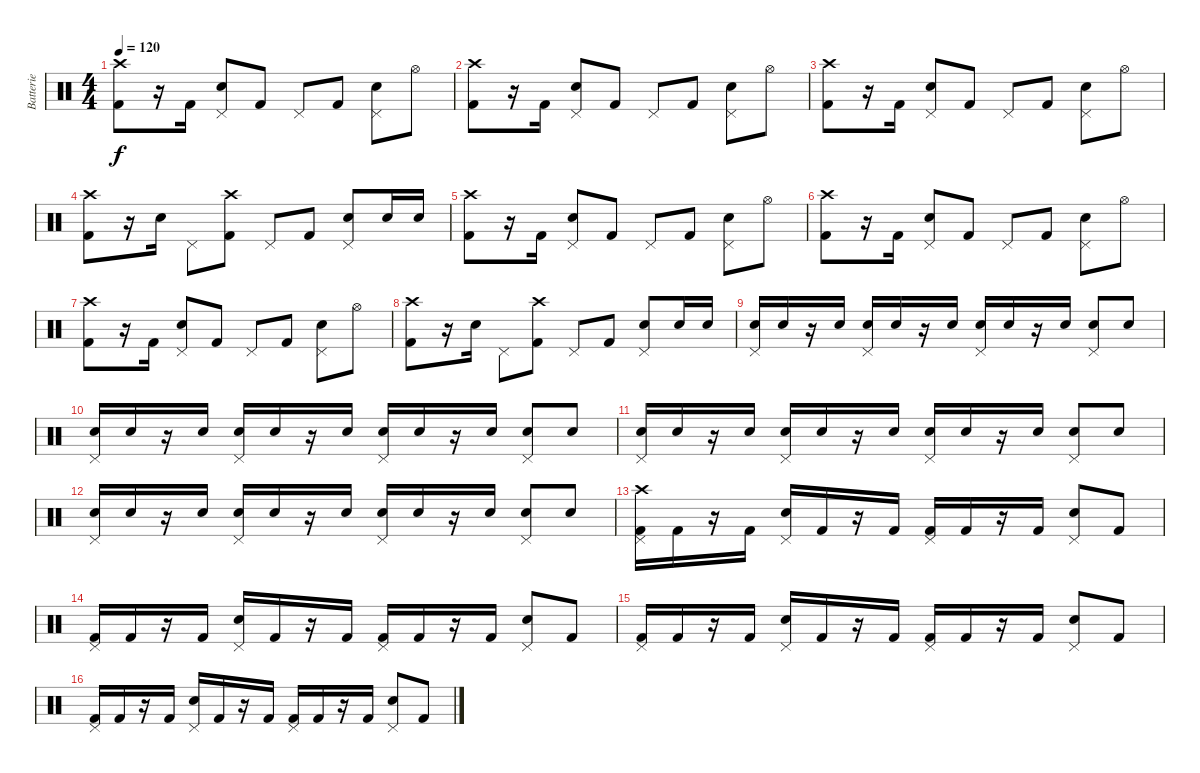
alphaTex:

\track ("Batterie" "Batterie") {instrument percussion}
\staff {score}
\articulation defaults
\ts (4 4)
\tempo 120
\clef neutral
\ks c
("Crash high (hit)" "Kick (hit) 2").8{dy f} r.16 "Kick (hit) 2".16 ("Snare (hit) 2" "Pedal Hi-Hat (hit)").8 "Kick (hit) 2".8 "Pedal Hi-Hat (hit)".8 "Kick (hit) 2".8 ("Snare (hit) 2" "Pedal Hi-Hat (hit)").8 "Hi-Hat (open)".8 |
("Crash high (hit)" "Kick (hit) 2").8 r.16 "Kick (hit) 2".16 ("Snare (hit) 2" "Pedal Hi-Hat (hit)").8 "Kick (hit) 2".8 "Pedal Hi-Hat (hit)".8 "Kick (hit) 2".8 ("Snare (hit) 2" "Pedal Hi-Hat (hit)").8 "Hi-Hat (open)".8 |
("Crash high (hit)" "Kick (hit) 2").8 r.16 "Kick (hit) 2".16 ("Snare (hit) 2" "Pedal Hi-Hat (hit)").8 "Kick (hit) 2".8 "Pedal Hi-Hat (hit)".8 "Kick (hit) 2".8 ("Snare (hit) 2" "Pedal Hi-Hat (hit)").8 "Hi-Hat (open)".8 |
("Crash high (hit)" "Kick (hit) 2").8 r.16 "Snare (hit) 2".16 "Pedal Hi-Hat (hit)".8 ("Crash high (hit)" "Kick (hit) 2").8 "Pedal Hi-Hat (hit)".8 "Kick (hit) 2".8 ("Snare (hit) 2" "Pedal Hi-Hat (hit)").8 "Snare (hit) 2".16 "Snare (hit) 2".16 |
("Crash high (hit)" "Kick (hit) 2").8 r.16 "Kick (hit) 2".16 ("Snare (hit) 2" "Pedal Hi-Hat (hit)").8 "Kick (hit) 2".8 "Pedal Hi-Hat (hit)".8 "Kick (hit) 2".8 ("Snare (hit) 2" "Pedal Hi-Hat (hit)").8 "Hi-Hat (open)".8 |
("Crash high (hit)" "Kick (hit) 2").8 r.16 "Kick (hit) 2".16 ("Snare (hit) 2" "Pedal Hi-Hat (hit)").8 "Kick (hit) 2".8 "Pedal Hi-Hat (hit)".8 "Kick (hit) 2".8 ("Snare (hit) 2" "Pedal Hi-Hat (hit)").8 "Hi-Hat (open)".8 |
("Crash high (hit)" "Kick (hit) 2").8 r.16 "Kick (hit) 2".16 ("Snare (hit) 2" "Pedal Hi-Hat (hit)").8 "Kick (hit) 2".8 "Pedal Hi-Hat (hit)".8 "Kick (hit) 2".8 ("Snare (hit) 2" "Pedal Hi-Hat (hit)").8 "Hi-Hat (open)".8 |
("Crash high (hit)" "Kick (hit) 2").8 r.16 "Snare (hit) 2".16 "Pedal Hi-Hat (hit)".8 ("Crash high (hit)" "Kick (hit) 2").8 "Pedal Hi-Hat (hit)".8 "Kick (hit) 2".8 ("Snare (hit) 2" "Pedal Hi-Hat (hit)").8 "Snare (hit) 2".16 "Snare (hit) 2".16 |
("Snare (hit) 2" "Pedal Hi-Hat (hit)").16 "Snare (hit) 2".16 r.16 "Snare (hit) 2".16 ("Snare (hit) 2" "Pedal Hi-Hat (hit)").16 "Snare (hit) 2".16 r.16 "Snare (hit) 2".16 ("Snare (hit) 2" "Pedal Hi-Hat (hit)").16 "Snare (hit) 2".16 r.16 "Snare (hit) 2".16 ("Snare (hit) 2" "Pedal Hi-Hat (hit)").8 "Snare (hit) 2".8 |
("Snare (hit) 2" "Pedal Hi-Hat (hit)").16 "Snare (hit) 2".16 r.16 "Snare (hit) 2".16 ("Snare (hit) 2" "Pedal Hi-Hat (hit)").16 "Snare (hit) 2".16 r.16 "Snare (hit) 2".16 ("Snare (hit) 2" "Pedal Hi-Hat (hit)").16 "Snare (hit) 2".16 r.16 "Snare (hit) 2".16 ("Snare (hit) 2" "Pedal Hi-Hat (hit)").8 "Snare (hit) 2".8 |
("Snare (hit) 2" "Pedal Hi-Hat (hit)").16 "Snare (hit) 2".16 r.16 "Snare (hit) 2".16 ("Snare (hit) 2" "Pedal Hi-Hat (hit)").16 "Snare (hit) 2".16 r.16 "Snare (hit) 2".16 ("Snare (hit) 2" "Pedal Hi-Hat (hit)").16 "Snare (hit) 2".16 r.16 "Snare (hit) 2".16 ("Snare (hit) 2" "Pedal Hi-Hat (hit)").8 "Snare (hit) 2".8 |
("Snare (hit) 2" "Pedal Hi-Hat (hit)").16 "Snare (hit) 2".16 r.16 "Snare (hit) 2".16 ("Snare (hit) 2" "Pedal Hi-Hat (hit)").16 "Snare (hit) 2".16 r.16 "Snare (hit) 2".16 ("Snare (hit) 2" "Pedal Hi-Hat (hit)").16 "Snare (hit) 2".16 r.16 "Snare (hit) 2".16 ("Snare (hit) 2" "Pedal Hi-Hat (hit)").8 "Snare (hit) 2".8 |
("Crash high (hit)" "Kick (hit) 2" "Pedal Hi-Hat (hit)").16 "Kick (hit) 2".16 r.16 "Kick (hit) 2".16 ("Snare (hit) 2" "Pedal Hi-Hat (hit)").16 "Kick (hit) 2".16 r.16 "Kick (hit) 2".16 ("Kick (hit) 2" "Pedal Hi-Hat (hit)").16 "Kick (hit) 2".16 r.16 "Kick (hit) 2".16 ("Snare (hit) 2" "Pedal Hi-Hat (hit)").8 "Kick (hit) 2".8 |
("Kick (hit) 2" "Pedal Hi-Hat (hit)").16 "Kick (hit) 2".16 r.16 "Kick (hit) 2".16 ("Snare (hit) 2" "Pedal Hi-Hat (hit)").16 "Kick (hit) 2".16 r.16 "Kick (hit) 2".16 ("Kick (hit) 2" "Pedal Hi-Hat (hit)").16 "Kick (hit) 2".16 r.16 "Kick (hit) 2".16 ("Snare (hit) 2" "Pedal Hi-Hat (hit)").8 "Kick (hit) 2".8 |
("Kick (hit) 2" "Pedal Hi-Hat (hit)").16 "Kick (hit) 2".16 r.16 "Kick (hit) 2".16 ("Snare (hit) 2" "Pedal Hi-Hat (hit)").16 "Kick (hit) 2".16 r.16 "Kick (hit) 2".16 ("Kick (hit) 2" "Pedal Hi-Hat (hit)").16 "Kick (hit) 2".16 r.16 "Kick (hit) 2".16 ("Snare (hit) 2" "Pedal Hi-Hat (hit)").8 "Kick (hit) 2".8 |
("Kick (hit) 2" "Pedal Hi-Hat (hit)").16 "Kick (hit) 2".16 r.16 "Kick (hit) 2".16 ("Snare (hit) 2" "Pedal Hi-Hat (hit)").16 "Kick (hit) 2".16 r.16 "Kick (hit) 2".16 ("Kick (hit) 2" "Pedal Hi-Hat (hit)").16 "Kick (hit) 2".16 r.16 "Kick (hit) 2".16 ("Snare (hit) 2" "Pedal Hi-Hat (hit)").8 "Kick (hit) 2".8
